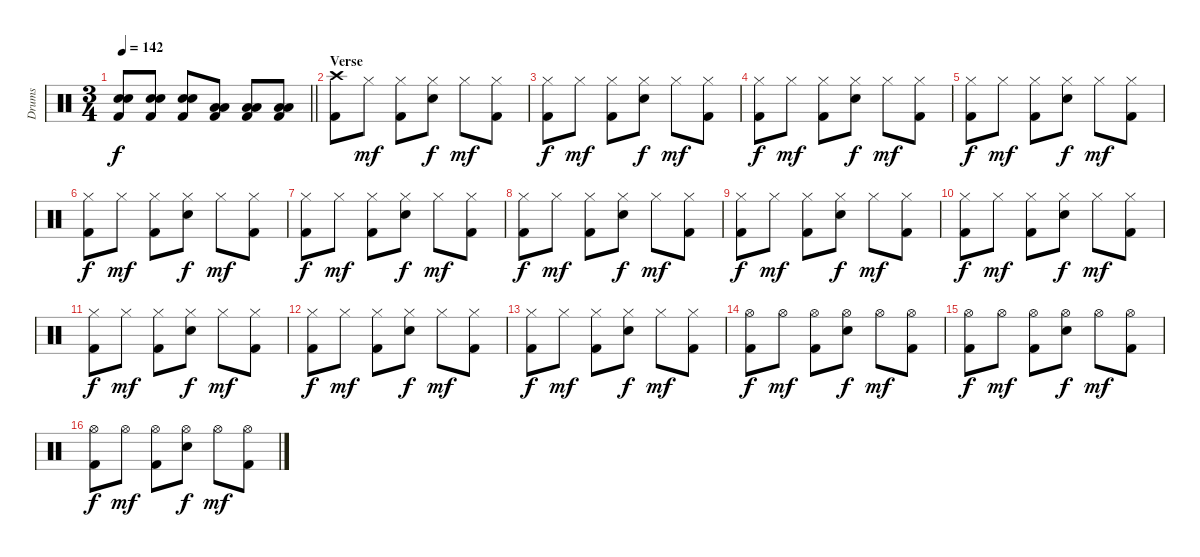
\track ("Drums" "Drums") {instrument percussion}
\staff {score}
\articulation defaults
\ts (3 4)
\tempo 142
\clef neutral
\barLineRight lightlight
\ks c
("Electric Snare (hit)" "Snare (hit) 2" "Kick (hit) 2").8{dy f} ("Electric Snare (hit)" "Snare (hit) 2" "Kick (hit) 2").8 ("Electric Snare (hit)" "Snare (hit) 2" "Kick (hit) 2").8 ("Low Tom (hit)" "Low Floor Tom (hit)" "Kick (hit) 2").8 ("Low Tom (hit)" "Low Floor Tom (hit)" "Kick (hit) 2").8 ("Low Tom (hit)" "Low Floor Tom (hit)" "Kick (hit) 2").8 |
\section ("" "Verse")
("Crash high (hit)" "Kick (hit) 2").8 "Hi-Hat (closed)".8{dy mf} ("Hi-Hat (closed)" "Kick (hit) 2").8 ("Hi-Hat (closed)" "Electric Snare (hit)").8{dy f} "Hi-Hat (closed)".8{dy mf} ("Hi-Hat (closed)" "Kick (hit) 2").8 |
("Hi-Hat (closed)" "Kick (hit) 2").8{dy f} "Hi-Hat (closed)".8{dy mf} ("Hi-Hat (closed)" "Kick (hit) 2").8 ("Hi-Hat (closed)" "Electric Snare (hit)").8{dy f} "Hi-Hat (closed)".8{dy mf} ("Hi-Hat (closed)" "Kick (hit) 2").8 |
("Hi-Hat (closed)" "Kick (hit) 2").8{dy f} "Hi-Hat (closed)".8{dy mf} ("Hi-Hat (closed)" "Kick (hit) 2").8 ("Hi-Hat (closed)" "Electric Snare (hit)").8{dy f} "Hi-Hat (closed)".8{dy mf} ("Hi-Hat (closed)" "Kick (hit) 2").8 |
("Hi-Hat (closed)" "Kick (hit) 2").8{dy f} "Hi-Hat (closed)".8{dy mf} ("Hi-Hat (closed)" "Kick (hit) 2").8 ("Hi-Hat (closed)" "Electric Snare (hit)").8{dy f} "Hi-Hat (closed)".8{dy mf} ("Hi-Hat (closed)" "Kick (hit) 2").8 |
("Hi-Hat (closed)" "Kick (hit) 2").8{dy f} "Hi-Hat (closed)".8{dy mf} ("Hi-Hat (closed)" "Kick (hit) 2").8 ("Hi-Hat (closed)" "Electric Snare (hit)").8{dy f} "Hi-Hat (closed)".8{dy mf} ("Hi-Hat (closed)" "Kick (hit) 2").8 |
("Hi-Hat (closed)" "Kick (hit) 2").8{dy f} "Hi-Hat (closed)".8{dy mf} ("Hi-Hat (closed)" "Kick (hit) 2").8 ("Hi-Hat (closed)" "Electric Snare (hit)").8{dy f} "Hi-Hat (closed)".8{dy mf} ("Hi-Hat (closed)" "Kick (hit) 2").8 |
("Hi-Hat (closed)" "Kick (hit) 2").8{dy f} "Hi-Hat (closed)".8{dy mf} ("Hi-Hat (closed)" "Kick (hit) 2").8 ("Hi-Hat (closed)" "Electric Snare (hit)").8{dy f} "Hi-Hat (closed)".8{dy mf} ("Hi-Hat (closed)" "Kick (hit) 2").8 |
("Hi-Hat (closed)" "Kick (hit) 2").8{dy f} "Hi-Hat (closed)".8{dy mf} ("Hi-Hat (closed)" "Kick (hit) 2").8 ("Hi-Hat (closed)" "Electric Snare (hit)").8{dy f} "Hi-Hat (closed)".8{dy mf} ("Hi-Hat (closed)" "Kick (hit) 2").8 |
("Hi-Hat (closed)" "Kick (hit) 2").8{dy f} "Hi-Hat (closed)".8{dy mf} ("Hi-Hat (closed)" "Kick (hit) 2").8 ("Hi-Hat (closed)" "Electric Snare (hit)").8{dy f} "Hi-Hat (closed)".8{dy mf} ("Hi-Hat (closed)" "Kick (hit) 2").8 |
("Hi-Hat (closed)" "Kick (hit) 2").8{dy f} "Hi-Hat (closed)".8{dy mf} ("Hi-Hat (closed)" "Kick (hit) 2").8 ("Hi-Hat (closed)" "Electric Snare (hit)").8{dy f} "Hi-Hat (closed)".8{dy mf} ("Hi-Hat (closed)" "Kick (hit) 2").8 |
("Hi-Hat (closed)" "Kick (hit) 2").8{dy f} "Hi-Hat (closed)".8{dy mf} ("Hi-Hat (closed)" "Kick (hit) 2").8 ("Hi-Hat (closed)" "Electric Snare (hit)").8{dy f} "Hi-Hat (closed)".8{dy mf} ("Hi-Hat (closed)" "Kick (hit) 2").8 |
("Hi-Hat (closed)" "Kick (hit) 2").8{dy f} "Hi-Hat (closed)".8{dy mf} ("Hi-Hat (closed)" "Kick (hit) 2").8 ("Hi-Hat (closed)" "Electric Snare (hit)").8{dy f} "Hi-Hat (closed)".8{dy mf} ("Hi-Hat (closed)" "Kick (hit) 2").8 |
("Hi-Hat (open)" "Kick (hit) 2").8{dy f} "Hi-Hat (open)".8{dy mf} ("Hi-Hat (open)" "Kick (hit) 2").8 ("Hi-Hat (open)" "Electric Snare (hit)").8{dy f} "Hi-Hat (open)".8{dy mf} ("Hi-Hat (open)" "Kick (hit) 2").8 |
("Hi-Hat (open)" "Kick (hit) 2").8{dy f} "Hi-Hat (open)".8{dy mf} ("Hi-Hat (open)" "Kick (hit) 2").8 ("Hi-Hat (open)" "Electric Snare (hit)").8{dy f} "Hi-Hat (open)".8{dy mf} ("Hi-Hat (open)" "Kick (hit) 2").8 |
("Hi-Hat (open)" "Kick (hit) 2").8{dy f} "Hi-Hat (open)".8{dy mf} ("Hi-Hat (open)" "Kick (hit) 2").8 ("Hi-Hat (open)" "Electric Snare (hit)").8{dy f} "Hi-Hat (open)".8{dy mf} ("Hi-Hat (open)" "Kick (hit) 2").8
